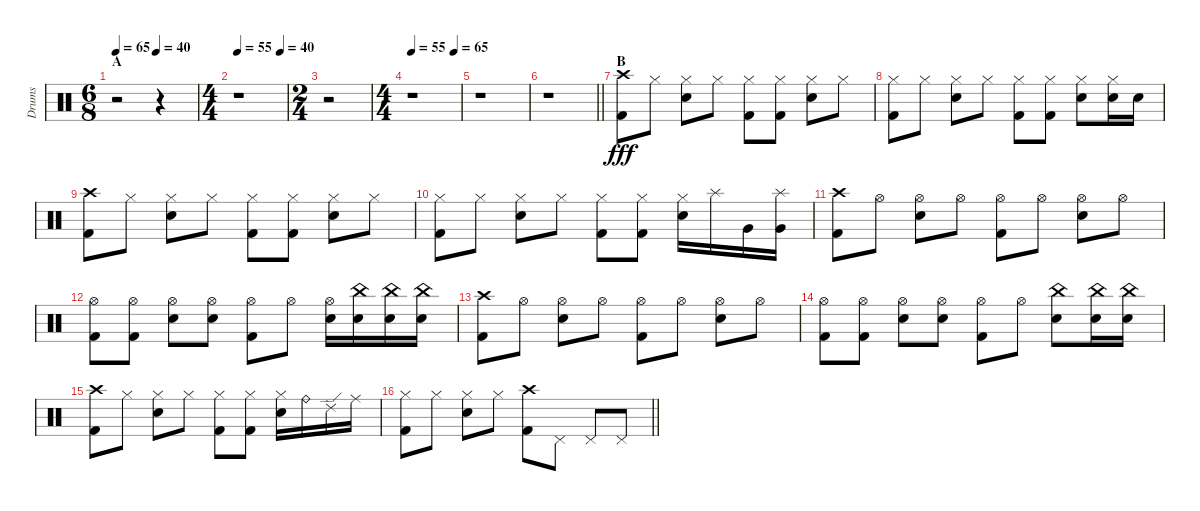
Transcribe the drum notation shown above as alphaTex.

\track ("Drums" "Drums") {instrument percussion}
\staff {score}
\articulation defaults
\ts (6 8)
\section ("" "A")
\tempo 65
\tempo (40 0.5)
\tempo 65
\clef neutral
\ks c
r.2{dy fff} r.4 |
\ts (4 4)
\tempo 55
\tempo (40 0.875)
r.1 |
\ts (2 4)
r.2 |
\ts (4 4)
\tempo 55
\tempo (65 0.875)
r.1 |
r.1 |
\barLineRight lightlight
r.1 |
\section ("" "B")
("Crash high (hit)" "Kick (hit) 2").8 "Hi-Hat (closed)".8 ("Hi-Hat (closed)" "Snare (hit) 2").8 "Hi-Hat (closed)".8 ("Hi-Hat (closed)" "Kick (hit) 2").8 ("Hi-Hat (closed)" "Kick (hit) 2").8 ("Hi-Hat (closed)" "Snare (hit) 2").8 "Hi-Hat (closed)".8 |
("Hi-Hat (closed)" "Kick (hit) 2").8 "Hi-Hat (closed)".8 ("Hi-Hat (closed)" "Snare (hit) 2").8 "Hi-Hat (closed)".8 ("Hi-Hat (closed)" "Kick (hit) 2").8 ("Hi-Hat (closed)" "Kick (hit) 2").8 ("Hi-Hat (closed)" "Snare (hit) 2").8 ("Hi-Hat (closed)" "Snare (hit) 2").16 "Snare (hit) 2".16 |
("Crash high (hit)" "Kick (hit) 2").8 "Hi-Hat (closed)".8 ("Hi-Hat (closed)" "Snare (hit) 2").8 "Hi-Hat (closed)".8 ("Hi-Hat (closed)" "Kick (hit) 2").8 ("Hi-Hat (closed)" "Kick (hit) 2").8 ("Hi-Hat (closed)" "Snare (hit) 2").8 "Hi-Hat (closed)".8 |
("Hi-Hat (closed)" "Kick (hit) 2").8 "Hi-Hat (closed)".8 ("Hi-Hat (closed)" "Snare (hit) 2").8 "Hi-Hat (closed)".8 ("Hi-Hat (closed)" "Kick (hit) 2").8 ("Hi-Hat (closed)" "Kick (hit) 2").8 ("Hi-Hat (closed)" "Snare (hit) 2").16 "Splash (hit)".16 "Very Low Tom (hit)".16 ("Splash (hit)" "Very Low Tom (hit)").16 |
("Crash high (hit)" "Kick (hit) 2").8 "Hi-Hat (open)".8 ("Hi-Hat (open)" "Snare (hit) 2").8 "Hi-Hat (open)".8 ("Hi-Hat (open)" "Kick (hit) 2").8 "Hi-Hat (open)".8 ("Hi-Hat (open)" "Snare (hit) 2").8 "Hi-Hat (open)".8 |
("Hi-Hat (open)" "Kick (hit) 2").8 ("Hi-Hat (open)" "Kick (hit) 2").8 ("Hi-Hat (open)" "Snare (hit) 2").8 ("Hi-Hat (open)" "Snare (hit) 2").8 ("Hi-Hat (open)" "Kick (hit) 2").8 "Hi-Hat (open)".8 ("Hi-Hat (open)" "Snare (hit) 2").16 ("China (hit)" "Snare (hit) 2").16 ("China (hit)" "Snare (hit) 2").16 ("China (hit)" "Snare (hit) 2").16 |
("Crash high (hit)" "Kick (hit) 2").8 "Hi-Hat (open)".8 ("Hi-Hat (open)" "Snare (hit) 2").8 "Hi-Hat (open)".8 ("Hi-Hat (open)" "Kick (hit) 2").8 "Hi-Hat (open)".8 ("Hi-Hat (open)" "Snare (hit) 2").8 "Hi-Hat (open)".8 |
("Hi-Hat (open)" "Kick (hit) 2").8 ("Hi-Hat (open)" "Kick (hit) 2").8 ("Hi-Hat (open)" "Snare (hit) 2").8 ("Hi-Hat (open)" "Snare (hit) 2").8 ("Hi-Hat (open)" "Kick (hit) 2").8 "Hi-Hat (open)".8 ("China (hit)" "Snare (hit) 2").8 ("China (hit)" "Snare (hit) 2").16 ("China (hit)" "Snare (hit) 2").16 |
("Crash high (hit)" "Kick (hit) 2").8 "Hi-Hat (closed)".8 ("Hi-Hat (closed)" "Snare (hit) 2").8 "Hi-Hat (closed)".8 ("Hi-Hat (closed)" "Kick (hit) 2").8 ("Hi-Hat (closed)" "Kick (hit) 2").8 ("Hi-Hat (closed)" "Snare (hit) 2").16 "Ride (bell)".16 "Ride (edge) 2".16 "Ride (middle)".16 |
\barLineRight lightlight
("Hi-Hat (closed)" "Kick (hit) 2").8 "Hi-Hat (closed)".8 ("Hi-Hat (closed)" "Snare (hit) 2").8 "Hi-Hat (closed)".8 ("Crash high (hit)" "Kick (hit) 2").8 "Pedal Hi-Hat (hit)".8 "Pedal Hi-Hat (hit)".8 "Pedal Hi-Hat (hit)".8
